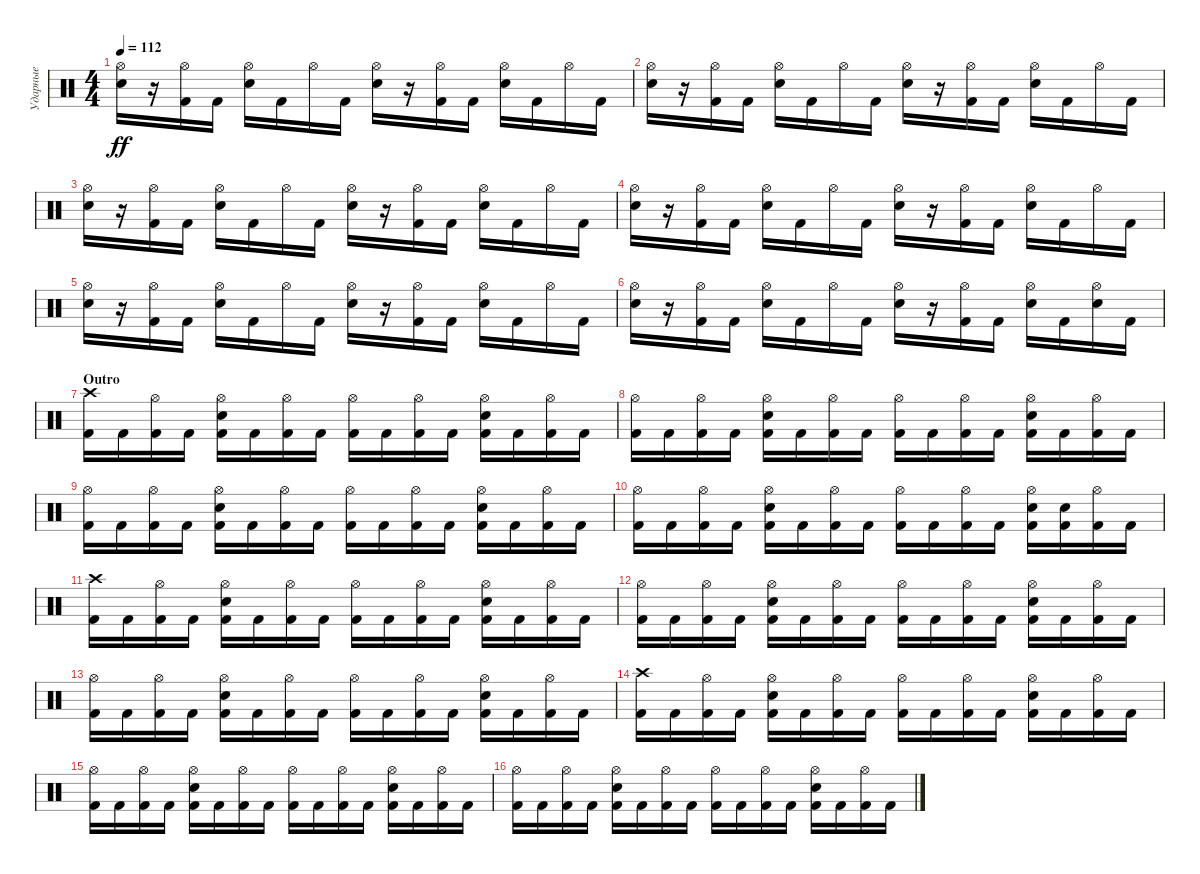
\track ("Ударные" "Ударные") {instrument percussion}
\staff {score}
\articulation defaults
\ts (4 4)
\tempo 112
\clef neutral
\ks c
("Hi-Hat (open)" "Snare (hit) 2").16{dy ff} r.16 ("Hi-Hat (open)" "Kick (hit) 2").16 "Kick (hit) 2".16 ("Hi-Hat (open)" "Snare (hit) 2").16 "Kick (hit) 2".16 "Hi-Hat (open)".16 "Kick (hit) 2".16 ("Hi-Hat (open)" "Snare (hit) 2").16 r.16 ("Hi-Hat (open)" "Kick (hit) 2").16 "Kick (hit) 2".16 ("Hi-Hat (open)" "Snare (hit) 2").16 "Kick (hit) 2".16 "Hi-Hat (open)".16 "Kick (hit) 2".16 |
("Hi-Hat (open)" "Snare (hit) 2").16 r.16 ("Hi-Hat (open)" "Kick (hit) 2").16 "Kick (hit) 2".16 ("Hi-Hat (open)" "Snare (hit) 2").16 "Kick (hit) 2".16 "Hi-Hat (open)".16 "Kick (hit) 2".16 ("Hi-Hat (open)" "Snare (hit) 2").16 r.16 ("Hi-Hat (open)" "Kick (hit) 2").16 "Kick (hit) 2".16 ("Hi-Hat (open)" "Snare (hit) 2").16 "Kick (hit) 2".16 "Hi-Hat (open)".16 "Kick (hit) 2".16 |
("Hi-Hat (open)" "Snare (hit) 2").16 r.16 ("Hi-Hat (open)" "Kick (hit) 2").16 "Kick (hit) 2".16 ("Hi-Hat (open)" "Snare (hit) 2").16 "Kick (hit) 2".16 "Hi-Hat (open)".16 "Kick (hit) 2".16 ("Hi-Hat (open)" "Snare (hit) 2").16 r.16 ("Hi-Hat (open)" "Kick (hit) 2").16 "Kick (hit) 2".16 ("Hi-Hat (open)" "Snare (hit) 2").16 "Kick (hit) 2".16 "Hi-Hat (open)".16 "Kick (hit) 2".16 |
("Hi-Hat (open)" "Snare (hit) 2").16 r.16 ("Hi-Hat (open)" "Kick (hit) 2").16 "Kick (hit) 2".16 ("Hi-Hat (open)" "Snare (hit) 2").16 "Kick (hit) 2".16 "Hi-Hat (open)".16 "Kick (hit) 2".16 ("Hi-Hat (open)" "Snare (hit) 2").16 r.16 ("Hi-Hat (open)" "Kick (hit) 2").16 "Kick (hit) 2".16 ("Hi-Hat (open)" "Snare (hit) 2").16 "Kick (hit) 2".16 "Hi-Hat (open)".16 "Kick (hit) 2".16 |
("Hi-Hat (open)" "Snare (hit) 2").16 r.16 ("Hi-Hat (open)" "Kick (hit) 2").16 "Kick (hit) 2".16 ("Hi-Hat (open)" "Snare (hit) 2").16 "Kick (hit) 2".16 "Hi-Hat (open)".16 "Kick (hit) 2".16 ("Hi-Hat (open)" "Snare (hit) 2").16 r.16 ("Hi-Hat (open)" "Kick (hit) 2").16 "Kick (hit) 2".16 ("Hi-Hat (open)" "Snare (hit) 2").16 "Kick (hit) 2".16 "Hi-Hat (open)".16 "Kick (hit) 2".16 |
("Hi-Hat (open)" "Snare (hit) 2").16 r.16 ("Hi-Hat (open)" "Kick (hit) 2").16 "Kick (hit) 2".16 ("Hi-Hat (open)" "Snare (hit) 2").16 "Kick (hit) 2".16 "Hi-Hat (open)".16 "Kick (hit) 2".16 ("Hi-Hat (open)" "Snare (hit) 2").16 r.16 ("Hi-Hat (open)" "Kick (hit) 2").16 "Kick (hit) 2".16 ("Hi-Hat (open)" "Snare (hit) 2").16 "Kick (hit) 2".16 ("Hi-Hat (open)" "Snare (hit) 2").16 "Kick (hit) 2".16 |
\section ("" "Outro")
("Crash high (hit)" "Kick (hit) 2").16 "Kick (hit) 2".16 ("Hi-Hat (open)" "Kick (hit) 2").16 "Kick (hit) 2".16 ("Hi-Hat (open)" "Snare (hit) 2" "Kick (hit) 2").16 "Kick (hit) 2".16 ("Hi-Hat (open)" "Kick (hit) 2").16 "Kick (hit) 2".16 ("Hi-Hat (open)" "Kick (hit) 2").16 "Kick (hit) 2".16 ("Hi-Hat (open)" "Kick (hit) 2").16 "Kick (hit) 2".16 ("Hi-Hat (open)" "Snare (hit) 2" "Kick (hit) 2").16 "Kick (hit) 2".16 ("Hi-Hat (open)" "Kick (hit) 2").16 "Kick (hit) 2".16 |
("Hi-Hat (open)" "Kick (hit) 2").16 "Kick (hit) 2".16 ("Hi-Hat (open)" "Kick (hit) 2").16 "Kick (hit) 2".16 ("Hi-Hat (open)" "Snare (hit) 2" "Kick (hit) 2").16 "Kick (hit) 2".16 ("Hi-Hat (open)" "Kick (hit) 2").16 "Kick (hit) 2".16 ("Hi-Hat (open)" "Kick (hit) 2").16 "Kick (hit) 2".16 ("Hi-Hat (open)" "Kick (hit) 2").16 "Kick (hit) 2".16 ("Hi-Hat (open)" "Snare (hit) 2" "Kick (hit) 2").16 "Kick (hit) 2".16 ("Hi-Hat (open)" "Kick (hit) 2").16 "Kick (hit) 2".16 |
("Hi-Hat (open)" "Kick (hit) 2").16 "Kick (hit) 2".16 ("Hi-Hat (open)" "Kick (hit) 2").16 "Kick (hit) 2".16 ("Hi-Hat (open)" "Snare (hit) 2" "Kick (hit) 2").16 "Kick (hit) 2".16 ("Hi-Hat (open)" "Kick (hit) 2").16 "Kick (hit) 2".16 ("Hi-Hat (open)" "Kick (hit) 2").16 "Kick (hit) 2".16 ("Hi-Hat (open)" "Kick (hit) 2").16 "Kick (hit) 2".16 ("Hi-Hat (open)" "Snare (hit) 2" "Kick (hit) 2").16 "Kick (hit) 2".16 ("Hi-Hat (open)" "Kick (hit) 2").16 "Kick (hit) 2".16 |
("Hi-Hat (open)" "Kick (hit) 2").16 "Kick (hit) 2".16 ("Hi-Hat (open)" "Kick (hit) 2").16 "Kick (hit) 2".16 ("Hi-Hat (open)" "Snare (hit) 2" "Kick (hit) 2").16 "Kick (hit) 2".16 ("Hi-Hat (open)" "Kick (hit) 2").16 "Kick (hit) 2".16 ("Hi-Hat (open)" "Kick (hit) 2").16 "Kick (hit) 2".16 ("Hi-Hat (open)" "Kick (hit) 2").16 "Kick (hit) 2".16 ("Hi-Hat (open)" "Snare (hit) 2" "Kick (hit) 2").16 ("Snare (hit) 2" "Kick (hit) 2").16 ("Hi-Hat (open)" "Kick (hit) 2").16 "Kick (hit) 2".16 |
("Crash high (hit)" "Kick (hit) 2").16 "Kick (hit) 2".16 ("Hi-Hat (open)" "Kick (hit) 2").16 "Kick (hit) 2".16 ("Hi-Hat (open)" "Snare (hit) 2" "Kick (hit) 2").16 "Kick (hit) 2".16 ("Hi-Hat (open)" "Kick (hit) 2").16 "Kick (hit) 2".16 ("Hi-Hat (open)" "Kick (hit) 2").16 "Kick (hit) 2".16 ("Hi-Hat (open)" "Kick (hit) 2").16 "Kick (hit) 2".16 ("Hi-Hat (open)" "Snare (hit) 2" "Kick (hit) 2").16 "Kick (hit) 2".16 ("Hi-Hat (open)" "Kick (hit) 2").16 "Kick (hit) 2".16 |
("Hi-Hat (open)" "Kick (hit) 2").16 "Kick (hit) 2".16 ("Hi-Hat (open)" "Kick (hit) 2").16 "Kick (hit) 2".16 ("Hi-Hat (open)" "Snare (hit) 2" "Kick (hit) 2").16 "Kick (hit) 2".16 ("Hi-Hat (open)" "Kick (hit) 2").16 "Kick (hit) 2".16 ("Hi-Hat (open)" "Kick (hit) 2").16 "Kick (hit) 2".16 ("Hi-Hat (open)" "Kick (hit) 2").16 "Kick (hit) 2".16 ("Hi-Hat (open)" "Snare (hit) 2" "Kick (hit) 2").16 "Kick (hit) 2".16 ("Hi-Hat (open)" "Kick (hit) 2").16 "Kick (hit) 2".16 |
("Hi-Hat (open)" "Kick (hit) 2").16 "Kick (hit) 2".16 ("Hi-Hat (open)" "Kick (hit) 2").16 "Kick (hit) 2".16 ("Hi-Hat (open)" "Snare (hit) 2" "Kick (hit) 2").16 "Kick (hit) 2".16 ("Hi-Hat (open)" "Kick (hit) 2").16 "Kick (hit) 2".16 ("Hi-Hat (open)" "Kick (hit) 2").16 "Kick (hit) 2".16 ("Hi-Hat (open)" "Kick (hit) 2").16 "Kick (hit) 2".16 ("Hi-Hat (open)" "Snare (hit) 2" "Kick (hit) 2").16 "Kick (hit) 2".16 ("Hi-Hat (open)" "Kick (hit) 2").16 "Kick (hit) 2".16 |
("Crash high (hit)" "Kick (hit) 2").16 "Kick (hit) 2".16 ("Hi-Hat (open)" "Kick (hit) 2").16 "Kick (hit) 2".16 ("Hi-Hat (open)" "Snare (hit) 2" "Kick (hit) 2").16 "Kick (hit) 2".16 ("Hi-Hat (open)" "Kick (hit) 2").16 "Kick (hit) 2".16 ("Hi-Hat (open)" "Kick (hit) 2").16 "Kick (hit) 2".16 ("Hi-Hat (open)" "Kick (hit) 2").16 "Kick (hit) 2".16 ("Hi-Hat (open)" "Snare (hit) 2" "Kick (hit) 2").16 "Kick (hit) 2".16 ("Hi-Hat (open)" "Kick (hit) 2").16 "Kick (hit) 2".16 |
("Hi-Hat (open)" "Kick (hit) 2").16 "Kick (hit) 2".16 ("Hi-Hat (open)" "Kick (hit) 2").16 "Kick (hit) 2".16 ("Hi-Hat (open)" "Snare (hit) 2" "Kick (hit) 2").16 "Kick (hit) 2".16 ("Hi-Hat (open)" "Kick (hit) 2").16 "Kick (hit) 2".16 ("Hi-Hat (open)" "Kick (hit) 2").16 "Kick (hit) 2".16 ("Hi-Hat (open)" "Kick (hit) 2").16 "Kick (hit) 2".16 ("Hi-Hat (open)" "Snare (hit) 2" "Kick (hit) 2").16 "Kick (hit) 2".16 ("Hi-Hat (open)" "Kick (hit) 2").16 "Kick (hit) 2".16 |
("Hi-Hat (open)" "Kick (hit) 2").16 "Kick (hit) 2".16 ("Hi-Hat (open)" "Kick (hit) 2").16 "Kick (hit) 2".16 ("Hi-Hat (open)" "Snare (hit) 2" "Kick (hit) 2").16 "Kick (hit) 2".16 ("Hi-Hat (open)" "Kick (hit) 2").16 "Kick (hit) 2".16 ("Hi-Hat (open)" "Kick (hit) 2").16 "Kick (hit) 2".16 ("Hi-Hat (open)" "Kick (hit) 2").16 "Kick (hit) 2".16 ("Hi-Hat (open)" "Snare (hit) 2" "Kick (hit) 2").16 "Kick (hit) 2".16 ("Hi-Hat (open)" "Kick (hit) 2").16 "Kick (hit) 2".16
